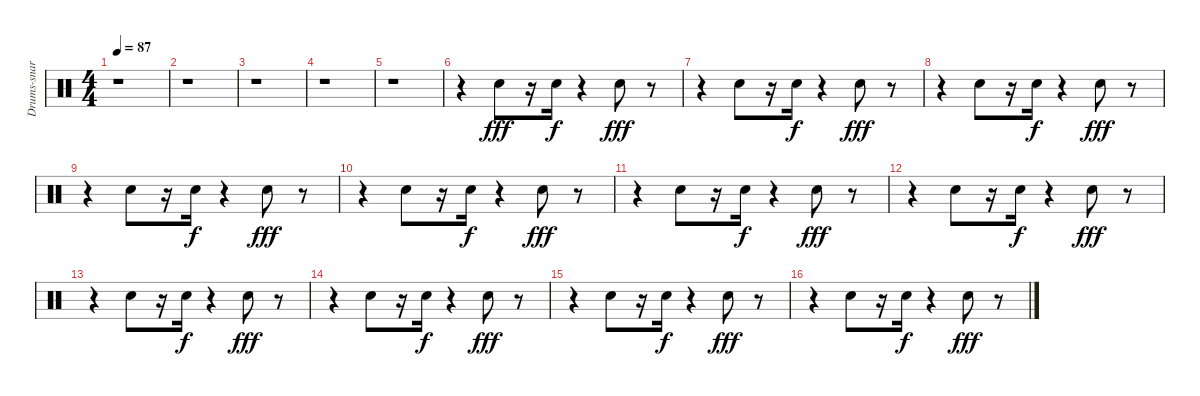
\track ("Drums-snare drum 1" "Drums-snar") {instrument percussion}
\staff {score}
\articulation defaults
\ts (4 4)
\tempo 87
\clef neutral
\ks c
r.1{dy fff} |
r.1 |
r.1 |
r.1 |
r.1 |
r.4 "Snare (hit) 2".8 r.16 "Snare (hit) 2".16{dy f} r.4 "Snare (hit) 2".8{dy fff} r.8 |
r.4 "Snare (hit) 2".8 r.16 "Snare (hit) 2".16{dy f} r.4 "Snare (hit) 2".8{dy fff} r.8 |
r.4 "Snare (hit) 2".8 r.16 "Snare (hit) 2".16{dy f} r.4 "Snare (hit) 2".8{dy fff} r.8 |
r.4 "Snare (hit) 2".8 r.16 "Snare (hit) 2".16{dy f} r.4 "Snare (hit) 2".8{dy fff} r.8 |
r.4 "Snare (hit) 2".8 r.16 "Snare (hit) 2".16{dy f} r.4 "Snare (hit) 2".8{dy fff} r.8 |
r.4 "Snare (hit) 2".8 r.16 "Snare (hit) 2".16{dy f} r.4 "Snare (hit) 2".8{dy fff} r.8 |
r.4 "Snare (hit) 2".8 r.16 "Snare (hit) 2".16{dy f} r.4 "Snare (hit) 2".8{dy fff} r.8 |
r.4 "Snare (hit) 2".8 r.16 "Snare (hit) 2".16{dy f} r.4 "Snare (hit) 2".8{dy fff} r.8 |
r.4 "Snare (hit) 2".8 r.16 "Snare (hit) 2".16{dy f} r.4 "Snare (hit) 2".8{dy fff} r.8 |
r.4 "Snare (hit) 2".8 r.16 "Snare (hit) 2".16{dy f} r.4 "Snare (hit) 2".8{dy fff} r.8 |
r.4 "Snare (hit) 2".8 r.16 "Snare (hit) 2".16{dy f} r.4 "Snare (hit) 2".8{dy fff} r.8
